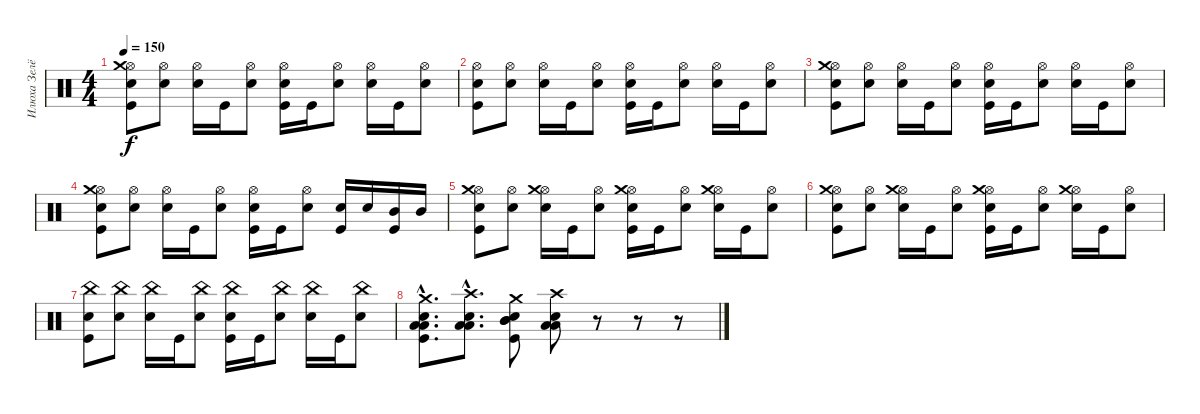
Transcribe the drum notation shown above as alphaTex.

\track ("Илюха Зелёный (БАРАБАНЫ)" "Илюха Зелё") {instrument percussion}
\staff {score}
\articulation defaults
\ts (4 4)
\tempo 150
\clef neutral
\ks c
("Hi-Hat (open)" "Crash medium (hit)" "Electric Snare (hit)" "Kick (hit)").8{dy f} ("Hi-Hat (open)" "Electric Snare (hit)").8 ("Hi-Hat (open)" "Electric Snare (hit)").16 "Kick (hit)".16 ("Hi-Hat (open)" "Electric Snare (hit)").8 ("Hi-Hat (open)" "Electric Snare (hit)" "Kick (hit)").16 "Kick (hit)".16 ("Hi-Hat (open)" "Electric Snare (hit)").8 ("Hi-Hat (open)" "Electric Snare (hit)").16 "Kick (hit)".16 ("Hi-Hat (open)" "Electric Snare (hit)").8 |
("Hi-Hat (open)" "Electric Snare (hit)" "Kick (hit)").8 ("Hi-Hat (open)" "Electric Snare (hit)").8 ("Hi-Hat (open)" "Electric Snare (hit)").16 "Kick (hit)".16 ("Hi-Hat (open)" "Electric Snare (hit)").8 ("Hi-Hat (open)" "Electric Snare (hit)" "Kick (hit)").16 "Kick (hit)".16 ("Hi-Hat (open)" "Electric Snare (hit)").8 ("Hi-Hat (open)" "Electric Snare (hit)").16 "Kick (hit)".16 ("Hi-Hat (open)" "Electric Snare (hit)").8 |
("Hi-Hat (open)" "Crash medium (hit)" "Electric Snare (hit)" "Kick (hit)").8 ("Hi-Hat (open)" "Electric Snare (hit)").8 ("Hi-Hat (open)" "Electric Snare (hit)").16 "Kick (hit)".16 ("Hi-Hat (open)" "Electric Snare (hit)").8 ("Hi-Hat (open)" "Electric Snare (hit)" "Kick (hit)").16 "Kick (hit)".16 ("Hi-Hat (open)" "Electric Snare (hit)").8 ("Hi-Hat (open)" "Electric Snare (hit)").16 "Kick (hit)".16 ("Hi-Hat (open)" "Electric Snare (hit)").8 |
("Hi-Hat (open)" "Crash medium (hit)" "Electric Snare (hit)" "Kick (hit)").8 ("Hi-Hat (open)" "Electric Snare (hit)").8 ("Hi-Hat (open)" "Electric Snare (hit)").16 "Kick (hit)".16 ("Hi-Hat (open)" "Electric Snare (hit)").8 ("Hi-Hat (open)" "Electric Snare (hit)" "Kick (hit)").16 "Kick (hit)".16 ("Hi-Hat (open)" "Electric Snare (hit)").8 ("Electric Snare (hit)" "Kick (hit)").16 "Electric Snare (hit)".16 ("Mid Tom (hit)" "Kick (hit)").16 "Mid Tom (hit)".16 |
("Hi-Hat (open)" "Crash medium (hit)" "Electric Snare (hit)" "Kick (hit)").8 ("Hi-Hat (open)" "Electric Snare (hit)").8 ("Hi-Hat (open)" "Crash medium (hit)" "Electric Snare (hit)").16 "Kick (hit)".16 ("Hi-Hat (open)" "Electric Snare (hit)").8 ("Hi-Hat (open)" "Crash medium (hit)" "Electric Snare (hit)" "Kick (hit)").16 "Kick (hit)".16 ("Hi-Hat (open)" "Electric Snare (hit)").8 ("Hi-Hat (open)" "Crash medium (hit)" "Electric Snare (hit)").16 "Kick (hit)".16 ("Hi-Hat (open)" "Electric Snare (hit)").8 |
("Hi-Hat (open)" "Crash medium (hit)" "Electric Snare (hit)" "Kick (hit)").8 ("Hi-Hat (open)" "Electric Snare (hit)").8 ("Hi-Hat (open)" "Crash medium (hit)" "Electric Snare (hit)").16 "Kick (hit)".16 ("Hi-Hat (open)" "Electric Snare (hit)").8 ("Hi-Hat (open)" "Crash medium (hit)" "Electric Snare (hit)" "Kick (hit)").16 "Kick (hit)".16 ("Hi-Hat (open)" "Electric Snare (hit)").8 ("Hi-Hat (open)" "Crash medium (hit)" "Electric Snare (hit)").16 "Kick (hit)".16 ("Hi-Hat (open)" "Electric Snare (hit)").8 |
("China (hit)" "Electric Snare (hit)" "Kick (hit)").8 ("China (hit)" "Electric Snare (hit)").8 ("China (hit)" "Electric Snare (hit)").16 "Kick (hit)".16 ("China (hit)" "Electric Snare (hit)").8 ("China (hit)" "Electric Snare (hit)" "Kick (hit)").16 "Kick (hit)".16 ("China (hit)" "Electric Snare (hit)").8 ("China (hit)" "Electric Snare (hit)").16 "Kick (hit)".16 ("China (hit)" "Electric Snare (hit)").8 |
("Crash medium (hit)"{hac} "Low Floor Tom (hit)"{hac} "Low Floor Tom (hit)"{hac} "Electric Snare (hit)"{hac} "Kick (hit)"{hac}).8{d} ("Crash high (hit)"{hac} "Low Floor Tom (hit)"{hac} "Low Floor Tom (hit)"{hac} "Electric Snare (hit)"{hac}).8{d} ("Crash medium (hit)" "Mid Tom (hit)" "Mid Tom (hit)" "Electric Snare (hit)" "Kick (hit)").8 ("Crash high (hit)" "Low Floor Tom (hit)" "Low Floor Tom (hit)" "Electric Snare (hit)").8 r.8 r.8 r.8
